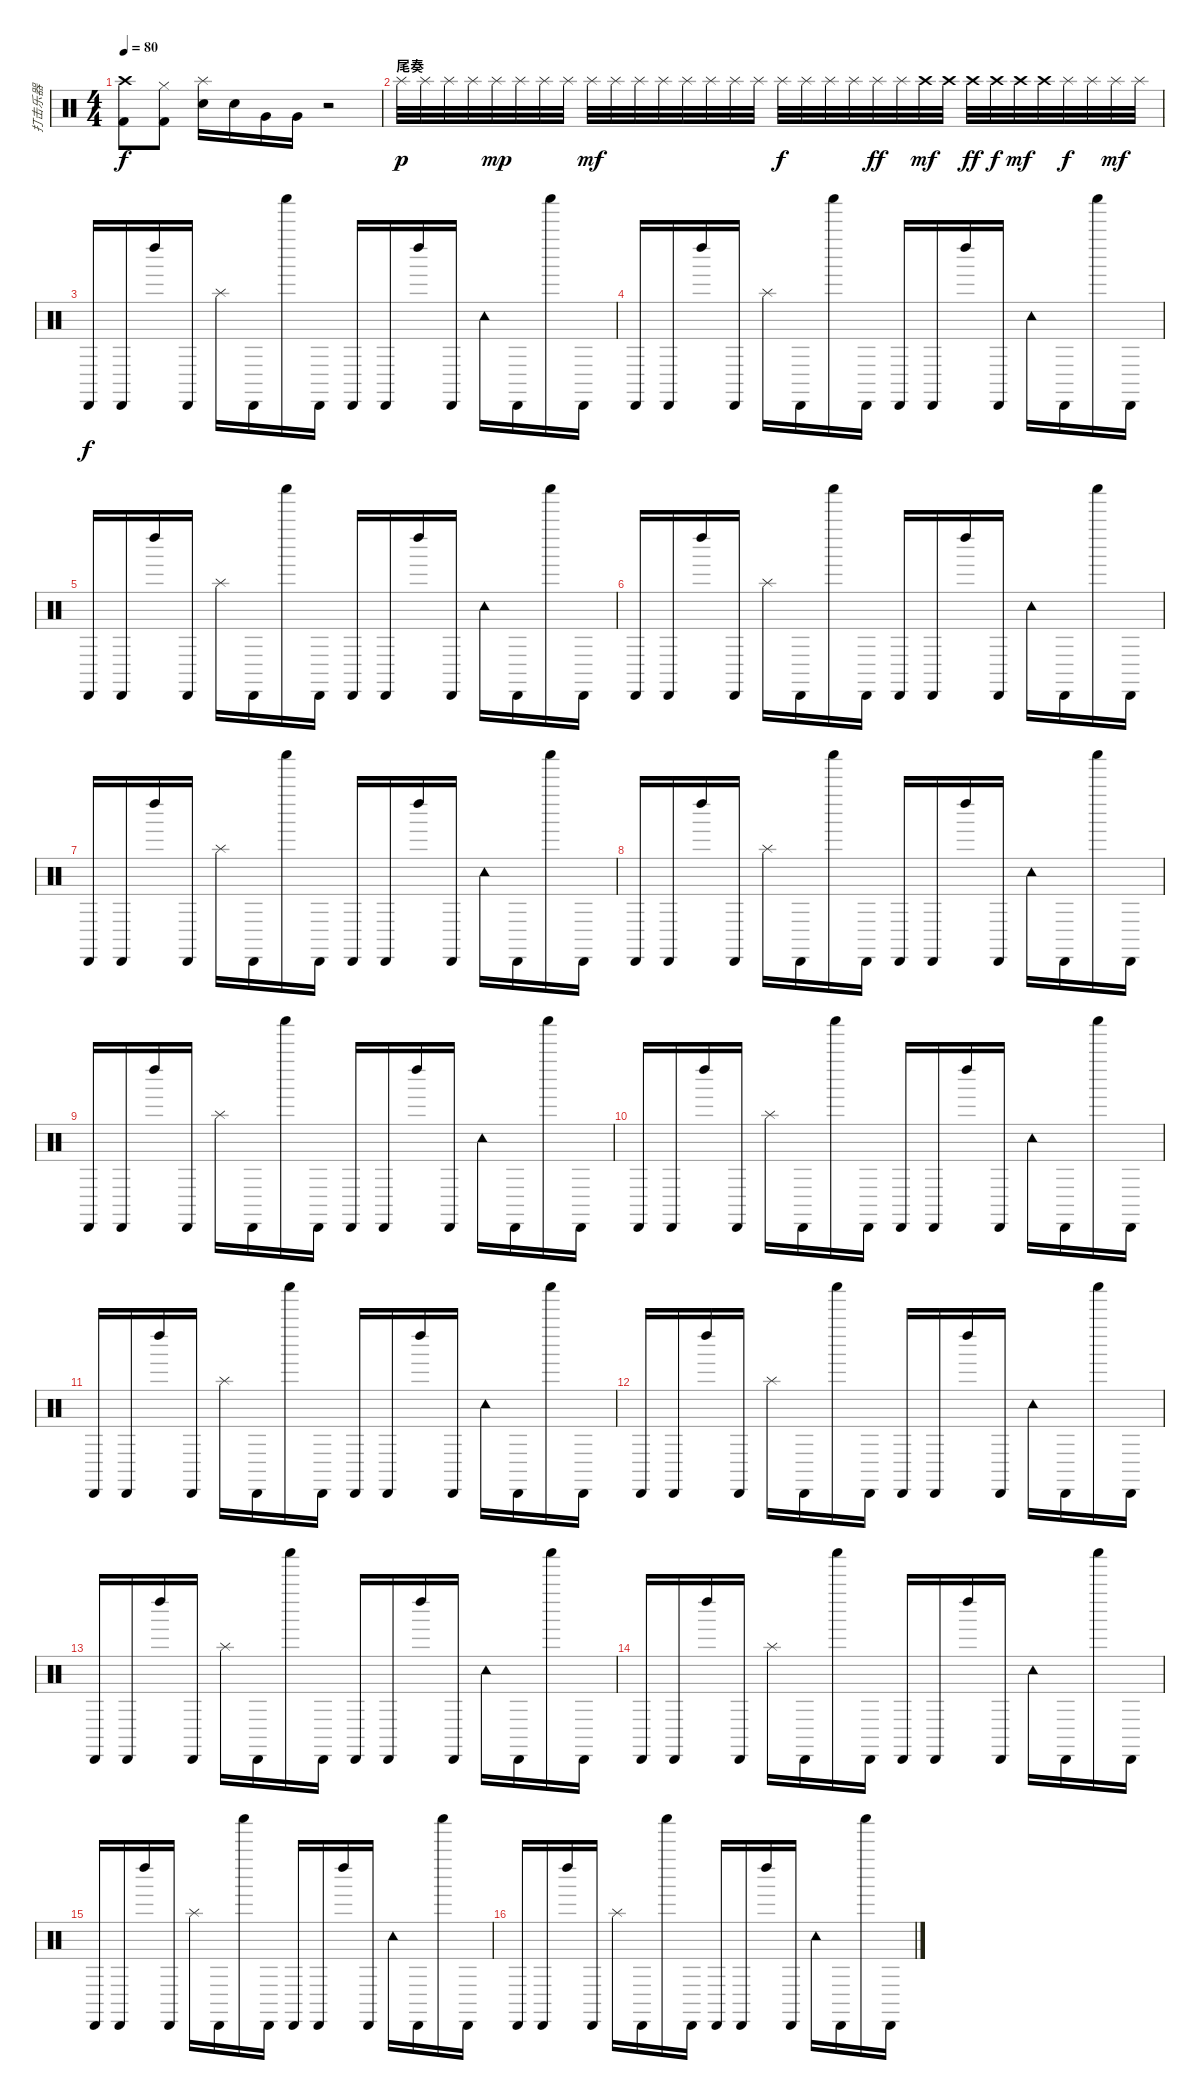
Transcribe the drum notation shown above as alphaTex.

\track ("打击乐器" "打击乐器") {instrument percussion}
\staff {score}
\articulation defaults
\ts (4 4)
\tempo 80
\clef neutral
\ks c
("Crash high (hit)" "Kick (hit) 2").8{dy f} ("Hi-Hat (closed)" "Kick (hit) 2").8 ("Splash (hit)" "Electric Snare (hit)").16 "Electric Snare (hit)".16 "Very Low Tom (hit)".16 "Very Low Tom (hit)".16 r.2 |
\section ("" "尾奏")
"Splash (hit)".32{dy p} "Splash (hit)".32 "Splash (hit)".32 "Splash (hit)".32 "Splash (hit)".32{dy mp} "Splash (hit)".32 "Splash (hit)".32 "Splash (hit)".32 "Splash (hit)".32{dy mf} "Splash (hit)".32 "Splash (hit)".32 "Splash (hit)".32 "Splash (hit)".32 "Splash (hit)".32 "Splash (hit)".32 "Splash (hit)".32 "Splash (hit)".32{dy f} "Splash (hit)".32 "Splash (hit)".32 "Splash (hit)".32 "Splash (hit)".32{dy ff} "Splash (hit)".32 "Crash high (hit)".32{dy mf} "Crash high (hit)".32 "Crash high (hit)".32{dy ff} "Crash high (hit)".32{dy f} "Crash high (hit)".32{dy mf} "Crash high (hit)".32 "Splash (hit)".32{dy f} "Splash (hit)".32 "Splash (hit)".32{dy mf} "Splash (hit)".32 |
"Cabasa (hit)".16{dy f} "Cabasa (hit)".16 "Left Maraca (hit)".16 "Cabasa (hit)".16 "Splash (hit)".16 "Cabasa (hit)".16 "Shaker (hit)".16 "Cabasa (hit)".16 "Cabasa (hit)".16 "Cabasa (hit)".16 "Left Maraca (hit)".16 "Cabasa (hit)".16 "Tambourine (hit)".16 "Cabasa (hit)".16 "Shaker (hit)".16 "Cabasa (hit)".16 |
"Cabasa (hit)".16 "Cabasa (hit)".16 "Left Maraca (hit)".16 "Cabasa (hit)".16 "Splash (hit)".16 "Cabasa (hit)".16 "Shaker (hit)".16 "Cabasa (hit)".16 "Cabasa (hit)".16 "Cabasa (hit)".16 "Left Maraca (hit)".16 "Cabasa (hit)".16 "Tambourine (hit)".16 "Cabasa (hit)".16 "Shaker (hit)".16 "Cabasa (hit)".16 |
"Cabasa (hit)".16 "Cabasa (hit)".16 "Left Maraca (hit)".16 "Cabasa (hit)".16 "Splash (hit)".16 "Cabasa (hit)".16 "Shaker (hit)".16 "Cabasa (hit)".16 "Cabasa (hit)".16 "Cabasa (hit)".16 "Left Maraca (hit)".16 "Cabasa (hit)".16 "Tambourine (hit)".16 "Cabasa (hit)".16 "Shaker (hit)".16 "Cabasa (hit)".16 |
"Cabasa (hit)".16 "Cabasa (hit)".16 "Left Maraca (hit)".16 "Cabasa (hit)".16 "Splash (hit)".16 "Cabasa (hit)".16 "Shaker (hit)".16 "Cabasa (hit)".16 "Cabasa (hit)".16 "Cabasa (hit)".16 "Left Maraca (hit)".16 "Cabasa (hit)".16 "Tambourine (hit)".16 "Cabasa (hit)".16 "Shaker (hit)".16 "Cabasa (hit)".16 |
"Cabasa (hit)".16 "Cabasa (hit)".16 "Left Maraca (hit)".16 "Cabasa (hit)".16 "Splash (hit)".16 "Cabasa (hit)".16 "Shaker (hit)".16 "Cabasa (hit)".16 "Cabasa (hit)".16 "Cabasa (hit)".16 "Left Maraca (hit)".16 "Cabasa (hit)".16 "Tambourine (hit)".16 "Cabasa (hit)".16 "Shaker (hit)".16 "Cabasa (hit)".16 |
"Cabasa (hit)".16 "Cabasa (hit)".16 "Left Maraca (hit)".16 "Cabasa (hit)".16 "Splash (hit)".16 "Cabasa (hit)".16 "Shaker (hit)".16 "Cabasa (hit)".16 "Cabasa (hit)".16 "Cabasa (hit)".16 "Left Maraca (hit)".16 "Cabasa (hit)".16 "Tambourine (hit)".16 "Cabasa (hit)".16 "Shaker (hit)".16 "Cabasa (hit)".16 |
"Cabasa (hit)".16 "Cabasa (hit)".16 "Left Maraca (hit)".16 "Cabasa (hit)".16 "Splash (hit)".16 "Cabasa (hit)".16 "Shaker (hit)".16 "Cabasa (hit)".16 "Cabasa (hit)".16 "Cabasa (hit)".16 "Left Maraca (hit)".16 "Cabasa (hit)".16 "Tambourine (hit)".16 "Cabasa (hit)".16 "Shaker (hit)".16 "Cabasa (hit)".16 |
"Cabasa (hit)".16 "Cabasa (hit)".16 "Left Maraca (hit)".16 "Cabasa (hit)".16 "Splash (hit)".16 "Cabasa (hit)".16 "Shaker (hit)".16 "Cabasa (hit)".16 "Cabasa (hit)".16 "Cabasa (hit)".16 "Left Maraca (hit)".16 "Cabasa (hit)".16 "Tambourine (hit)".16 "Cabasa (hit)".16 "Shaker (hit)".16 "Cabasa (hit)".16 |
"Cabasa (hit)".16 "Cabasa (hit)".16 "Left Maraca (hit)".16 "Cabasa (hit)".16 "Splash (hit)".16 "Cabasa (hit)".16 "Shaker (hit)".16 "Cabasa (hit)".16 "Cabasa (hit)".16 "Cabasa (hit)".16 "Left Maraca (hit)".16 "Cabasa (hit)".16 "Tambourine (hit)".16 "Cabasa (hit)".16 "Shaker (hit)".16 "Cabasa (hit)".16 |
"Cabasa (hit)".16 "Cabasa (hit)".16 "Left Maraca (hit)".16 "Cabasa (hit)".16 "Splash (hit)".16 "Cabasa (hit)".16 "Shaker (hit)".16 "Cabasa (hit)".16 "Cabasa (hit)".16 "Cabasa (hit)".16 "Left Maraca (hit)".16 "Cabasa (hit)".16 "Tambourine (hit)".16 "Cabasa (hit)".16 "Shaker (hit)".16 "Cabasa (hit)".16 |
"Cabasa (hit)".16 "Cabasa (hit)".16 "Left Maraca (hit)".16 "Cabasa (hit)".16 "Splash (hit)".16 "Cabasa (hit)".16 "Shaker (hit)".16 "Cabasa (hit)".16 "Cabasa (hit)".16 "Cabasa (hit)".16 "Left Maraca (hit)".16 "Cabasa (hit)".16 "Tambourine (hit)".16 "Cabasa (hit)".16 "Shaker (hit)".16 "Cabasa (hit)".16 |
"Cabasa (hit)".16 "Cabasa (hit)".16 "Left Maraca (hit)".16 "Cabasa (hit)".16 "Splash (hit)".16 "Cabasa (hit)".16 "Shaker (hit)".16 "Cabasa (hit)".16 "Cabasa (hit)".16 "Cabasa (hit)".16 "Left Maraca (hit)".16 "Cabasa (hit)".16 "Tambourine (hit)".16 "Cabasa (hit)".16 "Shaker (hit)".16 "Cabasa (hit)".16 |
"Cabasa (hit)".16 "Cabasa (hit)".16 "Left Maraca (hit)".16 "Cabasa (hit)".16 "Splash (hit)".16 "Cabasa (hit)".16 "Shaker (hit)".16 "Cabasa (hit)".16 "Cabasa (hit)".16 "Cabasa (hit)".16 "Left Maraca (hit)".16 "Cabasa (hit)".16 "Tambourine (hit)".16 "Cabasa (hit)".16 "Shaker (hit)".16 "Cabasa (hit)".16 |
"Cabasa (hit)".16 "Cabasa (hit)".16 "Left Maraca (hit)".16 "Cabasa (hit)".16 "Splash (hit)".16 "Cabasa (hit)".16 "Shaker (hit)".16 "Cabasa (hit)".16 "Cabasa (hit)".16 "Cabasa (hit)".16 "Left Maraca (hit)".16 "Cabasa (hit)".16 "Tambourine (hit)".16 "Cabasa (hit)".16 "Shaker (hit)".16 "Cabasa (hit)".16
